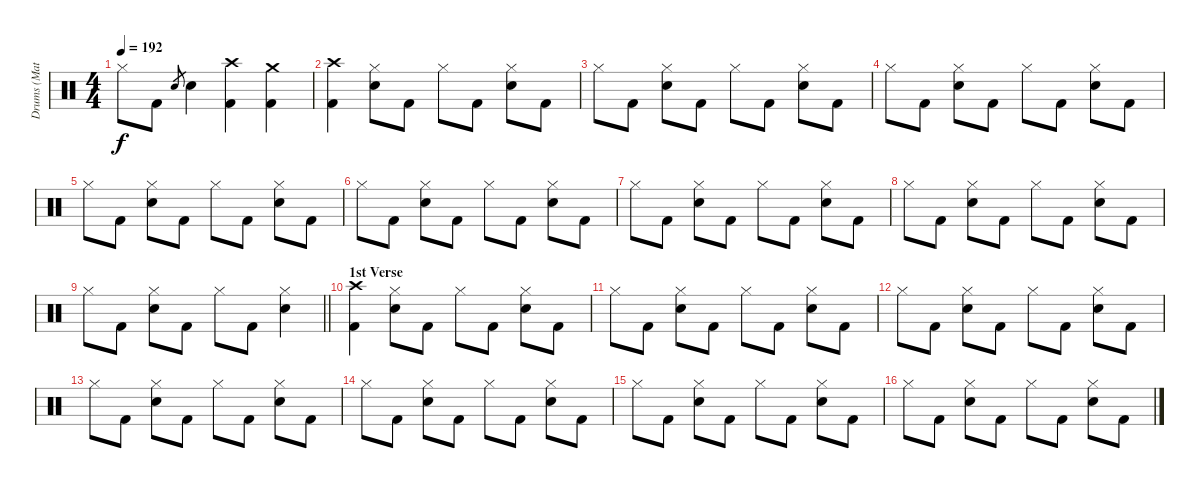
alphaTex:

\track ("Drums (Matt)" "Drums (Mat") {instrument percussion}
\staff {score}
\articulation defaults
\ts (4 4)
\tempo 192
\clef neutral
\ks c "Hi-Hat (closed)".8{dy f} "Kick (hit) 2".8 "Snare (hit) 2".8{gr} "Snare (hit) 2".4
("Crash high (hit)" "Kick (hit) 2").4 ("Crash medium (hit)" "Kick (hit) 2").4 |
("Crash high (hit)" "Kick (hit) 2").4 ("Hi-Hat (closed)" "Snare (hit) 2").8 "Kick (hit) 2".8 "Hi-Hat (closed)".8 "Kick (hit) 2".8 ("Hi-Hat (closed)" "Snare (hit) 2").8 "Kick (hit) 2".8 |
"Hi-Hat (closed)".8 "Kick (hit) 2".8 ("Hi-Hat (closed)" "Snare (hit) 2").8 "Kick (hit) 2".8 "Hi-Hat (closed)".8 "Kick (hit) 2".8 ("Hi-Hat (closed)" "Snare (hit) 2").8 "Kick (hit) 2".8 |
"Hi-Hat (closed)".8 "Kick (hit) 2".8 ("Hi-Hat (closed)" "Snare (hit) 2").8 "Kick (hit) 2".8 "Hi-Hat (closed)".8 "Kick (hit) 2".8 ("Hi-Hat (closed)" "Snare (hit) 2").8 "Kick (hit) 2".8 |
"Hi-Hat (closed)".8 "Kick (hit) 2".8 ("Hi-Hat (closed)" "Snare (hit) 2").8 "Kick (hit) 2".8 "Hi-Hat (closed)".8 "Kick (hit) 2".8 ("Hi-Hat (closed)" "Snare (hit) 2").8 "Kick (hit) 2".8 |
"Hi-Hat (closed)".8 "Kick (hit) 2".8 ("Hi-Hat (closed)" "Snare (hit) 2").8 "Kick (hit) 2".8 "Hi-Hat (closed)".8 "Kick (hit) 2".8 ("Hi-Hat (closed)" "Snare (hit) 2").8 "Kick (hit) 2".8 |
"Hi-Hat (closed)".8 "Kick (hit) 2".8 ("Hi-Hat (closed)" "Snare (hit) 2").8 "Kick (hit) 2".8 "Hi-Hat (closed)".8 "Kick (hit) 2".8 ("Hi-Hat (closed)" "Snare (hit) 2").8 "Kick (hit) 2".8 |
"Hi-Hat (closed)".8 "Kick (hit) 2".8 ("Hi-Hat (closed)" "Snare (hit) 2").8 "Kick (hit) 2".8 "Hi-Hat (closed)".8 "Kick (hit) 2".8 ("Hi-Hat (closed)" "Snare (hit) 2").8 "Kick (hit) 2".8 |
\barLineRight lightlight "Hi-Hat (closed)".8 "Kick (hit) 2".8
("Hi-Hat (closed)" "Snare (hit) 2").8 "Kick (hit) 2".8 "Hi-Hat (closed)".8 "Kick (hit) 2".8 ("Hi-Hat (closed)" "Snare (hit) 2").4 |
\section ("" "1st Verse")
("Crash high (hit)" "Kick (hit) 2").4 ("Hi-Hat (closed)" "Snare (hit) 2").8 "Kick (hit) 2".8 "Hi-Hat (closed)".8 "Kick (hit) 2".8 ("Hi-Hat (closed)" "Snare (hit) 2").8 "Kick (hit) 2".8 |
"Hi-Hat (closed)".8 "Kick (hit) 2".8 ("Hi-Hat (closed)" "Snare (hit) 2").8 "Kick (hit) 2".8 "Hi-Hat (closed)".8 "Kick (hit) 2".8 ("Hi-Hat (closed)" "Snare (hit) 2").8 "Kick (hit) 2".8 |
"Hi-Hat (closed)".8 "Kick (hit) 2".8 ("Hi-Hat (closed)" "Snare (hit) 2").8 "Kick (hit) 2".8 "Hi-Hat (closed)".8 "Kick (hit) 2".8 ("Hi-Hat (closed)" "Snare (hit) 2").8 "Kick (hit) 2".8 |
"Hi-Hat (closed)".8 "Kick (hit) 2".8 ("Hi-Hat (closed)" "Snare (hit) 2").8 "Kick (hit) 2".8 "Hi-Hat (closed)".8 "Kick (hit) 2".8 ("Hi-Hat (closed)" "Snare (hit) 2").8 "Kick (hit) 2".8 |
"Hi-Hat (closed)".8 "Kick (hit) 2".8 ("Hi-Hat (closed)" "Snare (hit) 2").8 "Kick (hit) 2".8 "Hi-Hat (closed)".8 "Kick (hit) 2".8 ("Hi-Hat (closed)" "Snare (hit) 2").8 "Kick (hit) 2".8 |
"Hi-Hat (closed)".8 "Kick (hit) 2".8 ("Hi-Hat (closed)" "Snare (hit) 2").8 "Kick (hit) 2".8 "Hi-Hat (closed)".8 "Kick (hit) 2".8 ("Hi-Hat (closed)" "Snare (hit) 2").8 "Kick (hit) 2".8 |
"Hi-Hat (closed)".8 "Kick (hit) 2".8 ("Hi-Hat (closed)" "Snare (hit) 2").8 "Kick (hit) 2".8 "Hi-Hat (closed)".8 "Kick (hit) 2".8 ("Hi-Hat (closed)" "Snare (hit) 2").8 "Kick (hit) 2".8
